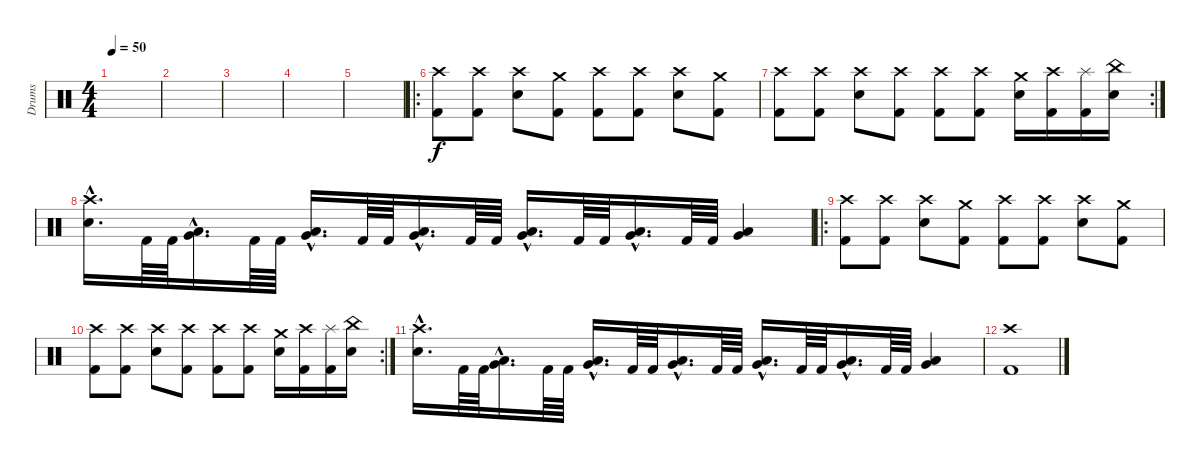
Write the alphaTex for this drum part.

\track ("Drums" "Drums") {instrument percussion}
\staff {score}
\articulation defaults
\ts (4 4)
\tempo 50
\clef neutral
\ks c
|
|
|
|
|
\ro
("Crash high (hit)" "Kick (hit) 2").8 ("Crash high (hit)" "Kick (hit) 2").8 ("Crash high (hit)" "Electric Snare (hit)").8 ("Crash medium (hit)" "Kick (hit) 2").8 ("Crash high (hit)" "Kick (hit) 2").8 ("Crash high (hit)" "Kick (hit) 2").8 ("Crash high (hit)" "Electric Snare (hit)").8 ("Crash medium (hit)" "Kick (hit) 2").8 |
\rc 2
("Crash high (hit)" "Kick (hit) 2").8 ("Crash high (hit)" "Kick (hit) 2").8 ("Crash high (hit)" "Electric Snare (hit)").8 ("Crash high (hit)" "Kick (hit) 2").8 ("Crash high (hit)" "Kick (hit) 2").8 ("Crash high (hit)" "Kick (hit) 2").8 ("Crash medium (hit)" "Electric Snare (hit)").16 ("Crash high (hit)" "Kick (hit) 2").16 ("Splash (hit)" "Kick (hit) 2").16 ("China (hit)" "Electric Snare (hit)").16 |
("Crash high (hit)"{hac} "Electric Snare (hit)"{hac}).16{d} "Kick (hit) 2".64 "Kick (hit) 2".64 ("Very Low Tom (hit)"{hac} "Low Tom (hit)"{hac}).16{d} "Kick (hit) 2".64 "Kick (hit) 2".64 ("Very Low Tom (hit)"{hac} "Low Tom (hit)"{hac}).16{d} "Kick (hit) 2".64 "Kick (hit) 2".64 ("Very Low Tom (hit)"{hac} "Low Tom (hit)"{hac}).16{d} "Kick (hit) 2".64 "Kick (hit) 2".64 ("Very Low Tom (hit)"{hac} "Low Tom (hit)"{hac}).16{d} "Kick (hit) 2".64 "Kick (hit) 2".64 ("Very Low Tom (hit)"{hac} "Low Tom (hit)"{hac}).16{d} "Kick (hit) 2".64 "Kick (hit) 2".64 ("Very Low Tom (hit)" "Low Tom (hit)").4 |
\ro
("Crash high (hit)" "Kick (hit) 2").8 ("Crash high (hit)" "Kick (hit) 2").8 ("Crash high (hit)" "Electric Snare (hit)").8 ("Crash medium (hit)" "Kick (hit) 2").8 ("Crash high (hit)" "Kick (hit) 2").8 ("Crash high (hit)" "Kick (hit) 2").8 ("Crash high (hit)" "Electric Snare (hit)").8 ("Crash medium (hit)" "Kick (hit) 2").8 |
\rc 2
("Crash high (hit)" "Kick (hit) 2").8 ("Crash high (hit)" "Kick (hit) 2").8 ("Crash high (hit)" "Electric Snare (hit)").8 ("Crash high (hit)" "Kick (hit) 2").8 ("Crash high (hit)" "Kick (hit) 2").8 ("Crash high (hit)" "Kick (hit) 2").8 ("Crash medium (hit)" "Electric Snare (hit)").16 ("Crash high (hit)" "Kick (hit) 2").16 ("Splash (hit)" "Kick (hit) 2").16 ("China (hit)" "Electric Snare (hit)").16 |
("Crash high (hit)"{hac} "Electric Snare (hit)"{hac}).16{d} "Kick (hit) 2".64 "Kick (hit) 2".64 ("Very Low Tom (hit)"{hac} "Low Tom (hit)"{hac}).16{d} "Kick (hit) 2".64 "Kick (hit) 2".64 ("Very Low Tom (hit)"{hac} "Low Tom (hit)"{hac}).16{d} "Kick (hit) 2".64 "Kick (hit) 2".64 ("Very Low Tom (hit)"{hac} "Low Tom (hit)"{hac}).16{d} "Kick (hit) 2".64 "Kick (hit) 2".64 ("Very Low Tom (hit)"{hac} "Low Tom (hit)"{hac}).16{d} "Kick (hit) 2".64 "Kick (hit) 2".64 ("Very Low Tom (hit)"{hac} "Low Tom (hit)"{hac}).16{d} "Kick (hit) 2".64 "Kick (hit) 2".64 ("Very Low Tom (hit)" "Low Tom (hit)").4 |
("Crash high (hit)" "Kick (hit) 2").1
